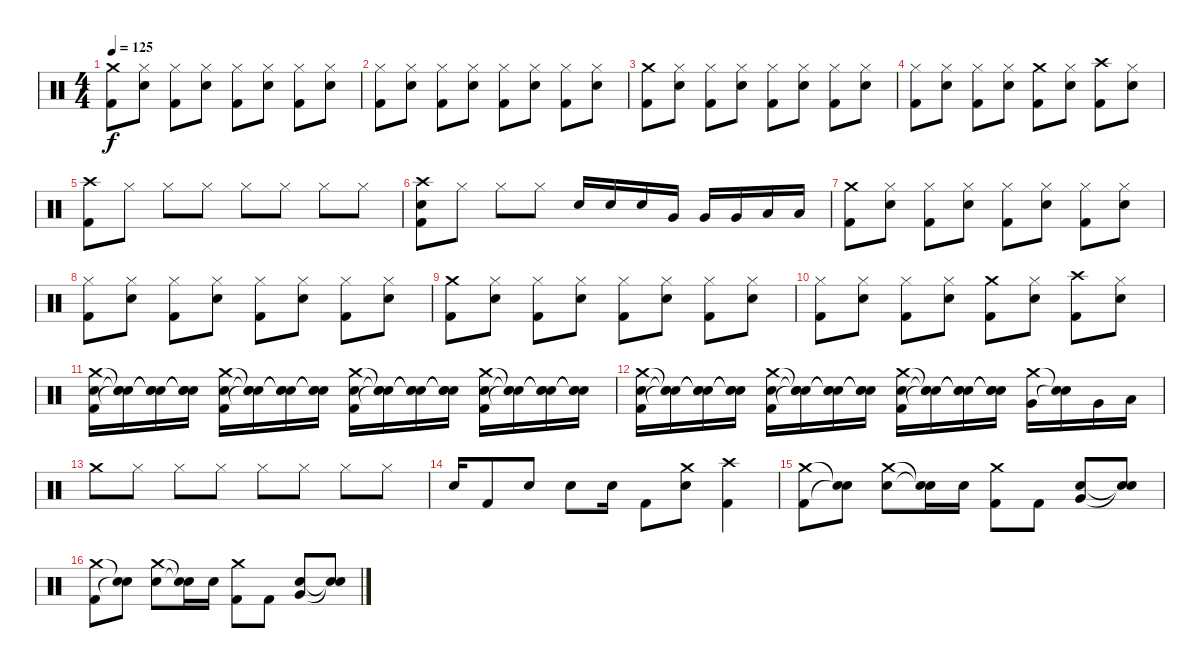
\track (" " " ") {instrument percussion}
\staff {score}
\articulation defaults
\ts (4 4)
\tempo 125
\clef neutral
\ks c
("Crash medium (hit)" "Kick (hit) 2").8{dy f} ("Hi-Hat (closed)" "Snare (hit) 2").8 ("Hi-Hat (closed)" "Kick (hit) 2").8 ("Hi-Hat (closed)" "Snare (hit) 2").8 ("Hi-Hat (closed)" "Kick (hit) 2").8 ("Hi-Hat (closed)" "Snare (hit) 2").8 ("Hi-Hat (closed)" "Kick (hit) 2").8 ("Hi-Hat (closed)" "Snare (hit) 2").8 |
("Hi-Hat (closed)" "Kick (hit) 2").8 ("Hi-Hat (closed)" "Snare (hit) 2").8 ("Hi-Hat (closed)" "Kick (hit) 2").8 ("Hi-Hat (closed)" "Snare (hit) 2").8 ("Hi-Hat (closed)" "Kick (hit) 2").8 ("Hi-Hat (closed)" "Snare (hit) 2").8 ("Hi-Hat (closed)" "Kick (hit) 2").8 ("Hi-Hat (closed)" "Snare (hit) 2").8 |
("Crash medium (hit)" "Kick (hit) 2").8 ("Hi-Hat (closed)" "Snare (hit) 2").8 ("Hi-Hat (closed)" "Kick (hit) 2").8 ("Hi-Hat (closed)" "Snare (hit) 2").8 ("Hi-Hat (closed)" "Kick (hit) 2").8 ("Hi-Hat (closed)" "Snare (hit) 2").8 ("Hi-Hat (closed)" "Kick (hit) 2").8 ("Hi-Hat (closed)" "Snare (hit) 2").8 |
("Hi-Hat (closed)" "Kick (hit) 2").8 ("Hi-Hat (closed)" "Snare (hit) 2").8 ("Hi-Hat (closed)" "Kick (hit) 2").8 ("Hi-Hat (closed)" "Snare (hit) 2").8 ("Crash medium (hit)" "Kick (hit) 2").8 ("Hi-Hat (closed)" "Snare (hit) 2").8 ("Crash high (hit)" "Kick (hit) 2").8 ("Hi-Hat (closed)" "Snare (hit) 2").8 |
("Crash high (hit)" "Kick (hit) 2").8 "Hi-Hat (closed)".8 "Hi-Hat (closed)".8 "Hi-Hat (closed)".8 "Hi-Hat (closed)".8 "Hi-Hat (closed)".8 "Hi-Hat (closed)".8 "Hi-Hat (closed)".8 |
("Crash high (hit)" "Snare (hit) 2" "Kick (hit) 2").8 "Hi-Hat (closed)".8 "Hi-Hat (closed)".8 "Hi-Hat (closed)".8 "Snare (hit) 2".16 "Snare (hit) 2".16 "Snare (hit) 2".16 "Very Low Tom (hit)".16 "Very Low Tom (hit)".16 "Very Low Tom (hit)".16 "Low Floor Tom (hit)".16 "Low Floor Tom (hit)".16 |
("Crash medium (hit)" "Kick (hit) 2").8 ("Hi-Hat (closed)" "Snare (hit) 2").8 ("Hi-Hat (closed)" "Kick (hit) 2").8 ("Hi-Hat (closed)" "Snare (hit) 2").8 ("Hi-Hat (closed)" "Kick (hit) 2").8 ("Hi-Hat (closed)" "Snare (hit) 2").8 ("Hi-Hat (closed)" "Kick (hit) 2").8 ("Hi-Hat (closed)" "Snare (hit) 2").8 |
("Hi-Hat (closed)" "Kick (hit) 2").8 ("Hi-Hat (closed)" "Snare (hit) 2").8 ("Hi-Hat (closed)" "Kick (hit) 2").8 ("Hi-Hat (closed)" "Snare (hit) 2").8 ("Hi-Hat (closed)" "Kick (hit) 2").8 ("Hi-Hat (closed)" "Snare (hit) 2").8 ("Hi-Hat (closed)" "Kick (hit) 2").8 ("Hi-Hat (closed)" "Snare (hit) 2").8 |
("Crash medium (hit)" "Kick (hit) 2").8 ("Hi-Hat (closed)" "Snare (hit) 2").8 ("Hi-Hat (closed)" "Kick (hit) 2").8 ("Hi-Hat (closed)" "Snare (hit) 2").8 ("Hi-Hat (closed)" "Kick (hit) 2").8 ("Hi-Hat (closed)" "Snare (hit) 2").8 ("Hi-Hat (closed)" "Kick (hit) 2").8 ("Hi-Hat (closed)" "Snare (hit) 2").8 |
("Hi-Hat (closed)" "Kick (hit) 2").8 ("Hi-Hat (closed)" "Snare (hit) 2").8 ("Hi-Hat (closed)" "Kick (hit) 2").8 ("Hi-Hat (closed)" "Snare (hit) 2").8 ("Crash medium (hit)" "Kick (hit) 2").8 ("Hi-Hat (closed)" "Snare (hit) 2").8 ("Crash high (hit)" "Kick (hit) 2").8 ("Hi-Hat (closed)" "Snare (hit) 2").8 |
("Crash medium (hit)" "Snare (hit) 2" "Kick (hit) 2").16 ("Snare (hit)"{t} "Snare (hit)"{t} "Snare (hit)"{t}).16 ("Snare (hit)"{t} "Snare (hit)"{t} "Snare (hit)"{t}).16 ("Snare (hit)"{t} "Snare (hit)"{t} "Snare (hit)"{t}).16 ("Crash medium (hit)" "Snare (hit) 2" "Kick (hit) 2").16 ("Snare (hit)"{t} "Snare (hit)"{t} "Snare (hit)"{t}).16 ("Snare (hit)"{t} "Snare (hit)"{t} "Snare (hit)"{t}).16 ("Snare (hit)"{t} "Snare (hit)"{t} "Snare (hit)"{t}).16 ("Crash medium (hit)" "Snare (hit) 2" "Kick (hit) 2").16 ("Snare (hit)"{t} "Snare (hit)"{t} "Snare (hit)"{t}).16 ("Snare (hit)"{t} "Snare (hit)"{t} "Snare (hit)"{t}).16 ("Snare (hit)"{t} "Snare (hit)"{t} "Snare (hit)"{t}).16 ("Crash medium (hit)" "Snare (hit) 2" "Kick (hit) 2").16 ("Snare (hit)"{t} "Snare (hit)"{t} "Snare (hit)"{t}).16 ("Snare (hit)"{t} "Snare (hit)"{t} "Snare (hit)"{t}).16 ("Snare (hit)"{t} "Snare (hit)"{t} "Snare (hit)"{t}).16 |
("Crash medium (hit)" "Snare (hit) 2" "Kick (hit) 2").16 ("Snare (hit)"{t} "Snare (hit)"{t} "Snare (hit)"{t}).16 ("Snare (hit)"{t} "Snare (hit)"{t} "Snare (hit)"{t}).16 ("Snare (hit)"{t} "Snare (hit)"{t} "Snare (hit)"{t}).16 ("Crash medium (hit)" "Snare (hit) 2" "Kick (hit) 2").16 ("Snare (hit)"{t} "Snare (hit)"{t} "Snare (hit)"{t}).16 ("Snare (hit)"{t} "Snare (hit)"{t} "Snare (hit)"{t}).16 ("Snare (hit)"{t} "Snare (hit)"{t} "Snare (hit)"{t}).16 ("Crash medium (hit)" "Snare (hit) 2" "Kick (hit) 2").16 ("Snare (hit)"{t} "Snare (hit)"{t} "Snare (hit)"{t}).16 ("Snare (hit)"{t} "Snare (hit)"{t} "Snare (hit)"{t}).16 ("Snare (hit)"{t} "Snare (hit)"{t} "Snare (hit)"{t}).16 ("Crash medium (hit)" "Very Low Tom (hit)").16 ("Snare (hit)"{t} "Snare (hit)"{t}).16 "Very Low Tom (hit)".16 "Low Floor Tom (hit)".16 |
"Crash medium (hit)".8 "Hi-Hat (closed)".8 "Hi-Hat (closed)".8 "Hi-Hat (closed)".8 "Hi-Hat (closed)".8 "Hi-Hat (closed)".8 "Hi-Hat (closed)".8 "Hi-Hat (closed)".8 |
"Snare (hit) 2".16 "Kick (hit) 2".8 "Snare (hit) 2".8 "Snare (hit) 2".8 "Snare (hit) 2".16 "Kick (hit) 2".8 ("Crash medium (hit)" "Snare (hit) 2").8 ("Crash high (hit)" "Kick (hit) 2").4 |
("Crash medium (hit)" "Kick (hit) 2").8 ("Snare (hit)"{t} "Snare (hit)"{t}).8 ("Crash medium (hit)" "Snare (hit) 2").8 ("Snare (hit)"{t} "Snare (hit)"{t}).16 "Snare (hit) 2".16 ("Crash medium (hit)" "Kick (hit) 2").8 "Kick (hit) 2".8 ("Snare (hit) 2" "Very Low Tom (hit)").8 ("Snare (hit)"{t} "Snare (hit)"{t}).8 |
("Crash medium (hit)" "Kick (hit) 2").8 ("Snare (hit)"{t} "Snare (hit)"{t}).8 ("Crash medium (hit)" "Snare (hit) 2").8 ("Snare (hit)"{t} "Snare (hit)"{t}).16 "Snare (hit) 2".16 ("Crash medium (hit)" "Kick (hit) 2").8 "Kick (hit) 2".8 ("Snare (hit) 2" "Very Low Tom (hit)").8 ("Snare (hit)"{t} "Snare (hit)"{t}).8
